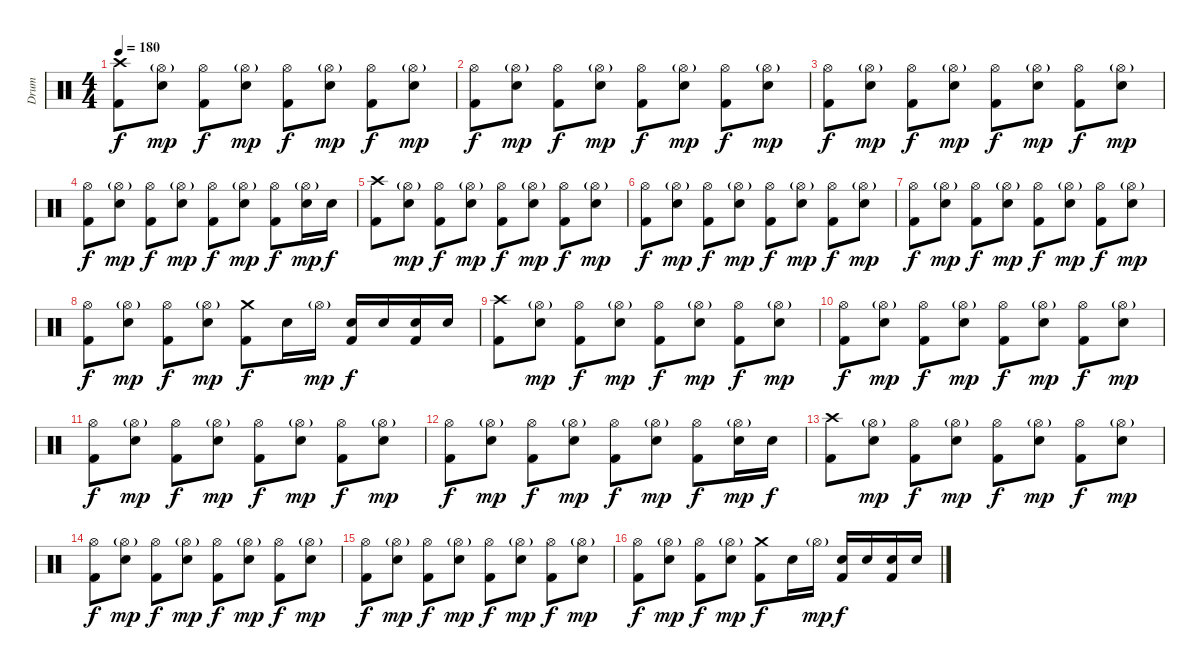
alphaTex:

\track ("Drum" "Drum") {instrument percussion}
\staff {score}
\articulation defaults
\ts (4 4)
\tempo 180
\clef neutral
\ks c
("Crash high (hit)" "Kick (hit) 2").8{dy f} ("Hi-Hat (open)"{g} "Snare (hit) 2").8{dy mp} ("Hi-Hat (open)" "Kick (hit) 2").8{dy f} ("Hi-Hat (open)"{g} "Snare (hit) 2").8{dy mp} ("Hi-Hat (open)" "Kick (hit) 2").8{dy f} ("Hi-Hat (open)"{g} "Snare (hit) 2").8{dy mp} ("Hi-Hat (open)" "Kick (hit) 2").8{dy f} ("Hi-Hat (open)"{g} "Snare (hit) 2").8{dy mp} |
("Hi-Hat (open)" "Kick (hit) 2").8{dy f} ("Hi-Hat (open)"{g} "Snare (hit) 2").8{dy mp} ("Hi-Hat (open)" "Kick (hit) 2").8{dy f} ("Hi-Hat (open)"{g} "Snare (hit) 2").8{dy mp} ("Hi-Hat (open)" "Kick (hit) 2").8{dy f} ("Hi-Hat (open)"{g} "Snare (hit) 2").8{dy mp} ("Hi-Hat (open)" "Kick (hit) 2").8{dy f} ("Hi-Hat (open)"{g} "Snare (hit) 2").8{dy mp} |
("Hi-Hat (open)" "Kick (hit) 2").8{dy f} ("Hi-Hat (open)"{g} "Snare (hit) 2").8{dy mp} ("Hi-Hat (open)" "Kick (hit) 2").8{dy f} ("Hi-Hat (open)"{g} "Snare (hit) 2").8{dy mp} ("Hi-Hat (open)" "Kick (hit) 2").8{dy f} ("Hi-Hat (open)"{g} "Snare (hit) 2").8{dy mp} ("Hi-Hat (open)" "Kick (hit) 2").8{dy f} ("Hi-Hat (open)"{g} "Snare (hit) 2").8{dy mp} |
("Hi-Hat (open)" "Kick (hit) 2").8{dy f} ("Hi-Hat (open)"{g} "Snare (hit) 2").8{dy mp} ("Hi-Hat (open)" "Kick (hit) 2").8{dy f} ("Hi-Hat (open)"{g} "Snare (hit) 2").8{dy mp} ("Hi-Hat (open)" "Kick (hit) 2").8{dy f} ("Hi-Hat (open)"{g} "Snare (hit) 2").8{dy mp} ("Hi-Hat (open)" "Kick (hit) 2").8{dy f} ("Hi-Hat (open)"{g} "Snare (hit) 2").16{dy mp} "Snare (hit) 2".16{dy f} |
("Crash high (hit)" "Kick (hit) 2").8 ("Hi-Hat (open)"{g} "Snare (hit) 2").8{dy mp} ("Hi-Hat (open)" "Kick (hit) 2").8{dy f} ("Hi-Hat (open)"{g} "Snare (hit) 2").8{dy mp} ("Hi-Hat (open)" "Kick (hit) 2").8{dy f} ("Hi-Hat (open)"{g} "Snare (hit) 2").8{dy mp} ("Hi-Hat (open)" "Kick (hit) 2").8{dy f} ("Hi-Hat (open)"{g} "Snare (hit) 2").8{dy mp} |
("Hi-Hat (open)" "Kick (hit) 2").8{dy f} ("Hi-Hat (open)"{g} "Snare (hit) 2").8{dy mp} ("Hi-Hat (open)" "Kick (hit) 2").8{dy f} ("Hi-Hat (open)"{g} "Snare (hit) 2").8{dy mp} ("Hi-Hat (open)" "Kick (hit) 2").8{dy f} ("Hi-Hat (open)"{g} "Snare (hit) 2").8{dy mp} ("Hi-Hat (open)" "Kick (hit) 2").8{dy f} ("Hi-Hat (open)"{g} "Snare (hit) 2").8{dy mp} |
("Hi-Hat (open)" "Kick (hit) 2").8{dy f} ("Hi-Hat (open)"{g} "Snare (hit) 2").8{dy mp} ("Hi-Hat (open)" "Kick (hit) 2").8{dy f} ("Hi-Hat (open)"{g} "Snare (hit) 2").8{dy mp} ("Hi-Hat (open)" "Kick (hit) 2").8{dy f} ("Hi-Hat (open)"{g} "Snare (hit) 2").8{dy mp} ("Hi-Hat (open)" "Kick (hit) 2").8{dy f} ("Hi-Hat (open)"{g} "Snare (hit) 2").8{dy mp} |
("Hi-Hat (open)" "Kick (hit) 2").8{dy f} ("Hi-Hat (open)"{g} "Snare (hit) 2").8{dy mp} ("Hi-Hat (open)" "Kick (hit) 2").8{dy f} ("Hi-Hat (open)"{g} "Snare (hit) 2").8{dy mp} ("Crash medium (hit)" "Kick (hit) 2").8{dy f} "Snare (hit) 2".16 "Hi-Hat (open)"{g}.16{dy mp} ("Snare (hit) 2" "Kick (hit) 2").16{dy f} "Snare (hit) 2".16 ("Snare (hit) 2" "Kick (hit) 2").16 "Snare (hit) 2".16 |
("Crash high (hit)" "Kick (hit) 2").8 ("Hi-Hat (open)"{g} "Snare (hit) 2").8{dy mp} ("Hi-Hat (open)" "Kick (hit) 2").8{dy f} ("Hi-Hat (open)"{g} "Snare (hit) 2").8{dy mp} ("Hi-Hat (open)" "Kick (hit) 2").8{dy f} ("Hi-Hat (open)"{g} "Snare (hit) 2").8{dy mp} ("Hi-Hat (open)" "Kick (hit) 2").8{dy f} ("Hi-Hat (open)"{g} "Snare (hit) 2").8{dy mp} |
("Hi-Hat (open)" "Kick (hit) 2").8{dy f} ("Hi-Hat (open)"{g} "Snare (hit) 2").8{dy mp} ("Hi-Hat (open)" "Kick (hit) 2").8{dy f} ("Hi-Hat (open)"{g} "Snare (hit) 2").8{dy mp} ("Hi-Hat (open)" "Kick (hit) 2").8{dy f} ("Hi-Hat (open)"{g} "Snare (hit) 2").8{dy mp} ("Hi-Hat (open)" "Kick (hit) 2").8{dy f} ("Hi-Hat (open)"{g} "Snare (hit) 2").8{dy mp} |
("Hi-Hat (open)" "Kick (hit) 2").8{dy f} ("Hi-Hat (open)"{g} "Snare (hit) 2").8{dy mp} ("Hi-Hat (open)" "Kick (hit) 2").8{dy f} ("Hi-Hat (open)"{g} "Snare (hit) 2").8{dy mp} ("Hi-Hat (open)" "Kick (hit) 2").8{dy f} ("Hi-Hat (open)"{g} "Snare (hit) 2").8{dy mp} ("Hi-Hat (open)" "Kick (hit) 2").8{dy f} ("Hi-Hat (open)"{g} "Snare (hit) 2").8{dy mp} |
("Hi-Hat (open)" "Kick (hit) 2").8{dy f} ("Hi-Hat (open)"{g} "Snare (hit) 2").8{dy mp} ("Hi-Hat (open)" "Kick (hit) 2").8{dy f} ("Hi-Hat (open)"{g} "Snare (hit) 2").8{dy mp} ("Hi-Hat (open)" "Kick (hit) 2").8{dy f} ("Hi-Hat (open)"{g} "Snare (hit) 2").8{dy mp} ("Hi-Hat (open)" "Kick (hit) 2").8{dy f} ("Hi-Hat (open)"{g} "Snare (hit) 2").16{dy mp} "Snare (hit) 2".16{dy f} |
("Crash high (hit)" "Kick (hit) 2").8 ("Hi-Hat (open)"{g} "Snare (hit) 2").8{dy mp} ("Hi-Hat (open)" "Kick (hit) 2").8{dy f} ("Hi-Hat (open)"{g} "Snare (hit) 2").8{dy mp} ("Hi-Hat (open)" "Kick (hit) 2").8{dy f} ("Hi-Hat (open)"{g} "Snare (hit) 2").8{dy mp} ("Hi-Hat (open)" "Kick (hit) 2").8{dy f} ("Hi-Hat (open)"{g} "Snare (hit) 2").8{dy mp} |
("Hi-Hat (open)" "Kick (hit) 2").8{dy f} ("Hi-Hat (open)"{g} "Snare (hit) 2").8{dy mp} ("Hi-Hat (open)" "Kick (hit) 2").8{dy f} ("Hi-Hat (open)"{g} "Snare (hit) 2").8{dy mp} ("Hi-Hat (open)" "Kick (hit) 2").8{dy f} ("Hi-Hat (open)"{g} "Snare (hit) 2").8{dy mp} ("Hi-Hat (open)" "Kick (hit) 2").8{dy f} ("Hi-Hat (open)"{g} "Snare (hit) 2").8{dy mp} |
("Hi-Hat (open)" "Kick (hit) 2").8{dy f} ("Hi-Hat (open)"{g} "Snare (hit) 2").8{dy mp} ("Hi-Hat (open)" "Kick (hit) 2").8{dy f} ("Hi-Hat (open)"{g} "Snare (hit) 2").8{dy mp} ("Hi-Hat (open)" "Kick (hit) 2").8{dy f} ("Hi-Hat (open)"{g} "Snare (hit) 2").8{dy mp} ("Hi-Hat (open)" "Kick (hit) 2").8{dy f} ("Hi-Hat (open)"{g} "Snare (hit) 2").8{dy mp} |
("Hi-Hat (open)" "Kick (hit) 2").8{dy f} ("Hi-Hat (open)"{g} "Snare (hit) 2").8{dy mp} ("Hi-Hat (open)" "Kick (hit) 2").8{dy f} ("Hi-Hat (open)"{g} "Snare (hit) 2").8{dy mp} ("Crash medium (hit)" "Kick (hit) 2").8{dy f} "Snare (hit) 2".16 "Hi-Hat (open)"{g}.16{dy mp} ("Snare (hit) 2" "Kick (hit) 2").16{dy f} "Snare (hit) 2".16 ("Snare (hit) 2" "Kick (hit) 2").16 "Snare (hit) 2".16
